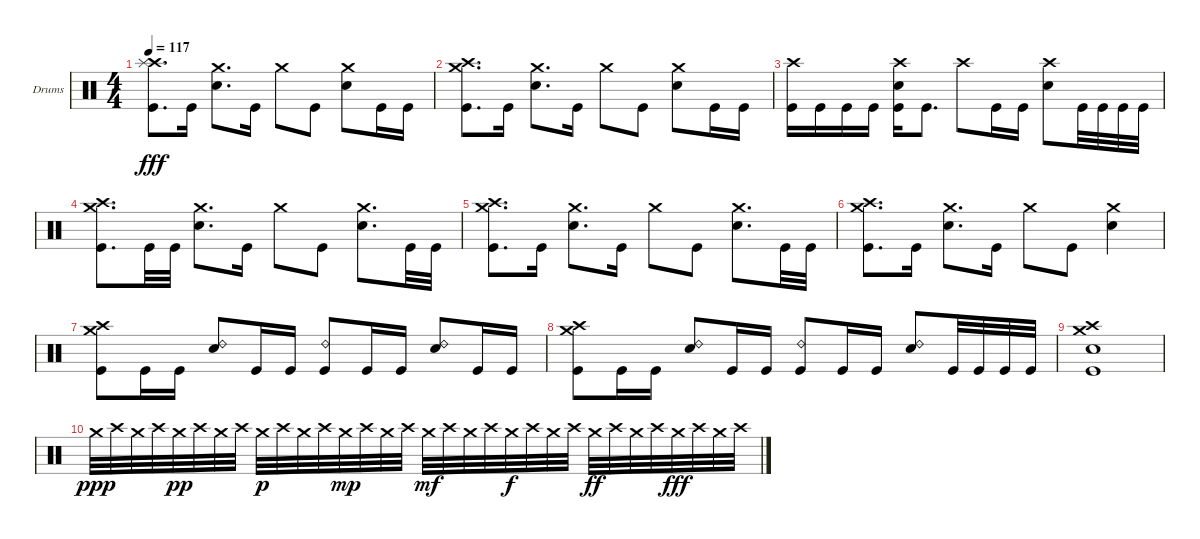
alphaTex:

\defaultSystemsLayout 4
\bracketExtendMode groupsimilarinstruments
\firstSystemTrackNameOrientation horizontal
\otherSystemsTrackNameOrientation horizontal
\track ("Drumkit" "Drums") {instrument percussion}
\staff {score}
\articulation defaults
\ts (4 4)
\tempo 117
\clef neutral
\ks c
("Crash high (hit)" "Splash (hit)" "Kick (hit)").8{d dy fff} "Kick (hit)".16 ("Crash medium (hit)" "Snare (hit) 2").8{d} "Kick (hit)".16 "Crash medium (hit)".8 "Kick (hit)".8 ("Crash medium (hit)" "Snare (hit) 2").8 "Kick (hit)".16 "Kick (hit)".16 |
("Crash high (hit)" "Crash medium (hit)" "Kick (hit)").8{d} "Kick (hit)".16 ("Crash medium (hit)" "Snare (hit) 2").8{d} "Kick (hit)".16 "Crash medium (hit)".8 "Kick (hit)".8 ("Crash medium (hit)" "Snare (hit) 2").8 "Kick (hit)".16 "Kick (hit)".16 |
("Crash high (hit)" "Kick (hit)").16 "Kick (hit)".16 "Kick (hit)".16 "Kick (hit)".16 ("Crash high (hit)" "Snare (hit) 2" "Kick (hit)").16 "Kick (hit)".8{d} "Crash high (hit)".8 "Kick (hit)".16 "Kick (hit)".16 ("Crash high (hit)" "Snare (hit) 2").8 "Kick (hit)".32 "Kick (hit)".32 "Kick (hit)".32 "Kick (hit)".32 |
("Crash high (hit)" "Crash medium (hit)" "Kick (hit)").8{d} "Kick (hit)".32 "Kick (hit)".32 ("Crash medium (hit)" "Snare (hit) 2").8{d} "Kick (hit)".16 "Crash medium (hit)".8 "Kick (hit)".8 ("Crash medium (hit)" "Snare (hit) 2").8{d} "Kick (hit)".32 "Kick (hit)".32 |
("Crash high (hit)" "Crash medium (hit)" "Kick (hit)").8{d} "Kick (hit)".16 ("Crash medium (hit)" "Snare (hit) 2").8{d} "Kick (hit)".16 "Crash medium (hit)".8 "Kick (hit)".8 ("Crash medium (hit)" "Snare (hit) 2").8{d} "Kick (hit)".32 "Kick (hit)".32 |
("Crash high (hit)" "Crash medium (hit)" "Kick (hit)").8{d} "Kick (hit)".16 ("Crash medium (hit)" "Snare (hit) 2").8{d} "Kick (hit)".16 "Crash medium (hit)".8 "Kick (hit)".8 ("Crash medium (hit)" "Snare (hit) 2").4 |
("Crash high (hit)" "Crash medium (hit)" "Kick (hit)").8 "Kick (hit)".16 "Kick (hit)".16 ("Ride (bell) 2" "Snare (hit) 2").8 "Kick (hit)".16 "Kick (hit)".16 ("Ride (bell) 2" "Kick (hit)").8 "Kick (hit)".16 "Kick (hit)".16 ("Ride (bell) 2" "Snare (hit) 2").8 "Kick (hit)".16 "Kick (hit)".16 |
("Crash high (hit)" "Crash medium (hit)" "Kick (hit)").8 "Kick (hit)".16 "Kick (hit)".16 ("Ride (bell) 2" "Snare (hit) 2").8 "Kick (hit)".16 "Kick (hit)".16 ("Ride (bell) 2" "Kick (hit)").8 "Kick (hit)".16 "Kick (hit)".16 ("Ride (bell) 2" "Snare (hit) 2").8 "Kick (hit)".32 "Kick (hit)".32 "Kick (hit)".32 "Kick (hit)".32 |
("Crash high (hit)" "Crash medium (hit)" "Snare (hit) 2" "Kick (hit)").1 |
"Crash medium (hit)".32{dy ppp} "Crash high (hit)".32 "Crash medium (hit)".32 "Crash high (hit)".32 "Crash medium (hit)".32{dy pp} "Crash high (hit)".32 "Crash medium (hit)".32 "Crash high (hit)".32 "Crash medium (hit)".32{dy p} "Crash high (hit)".32 "Crash medium (hit)".32 "Crash high (hit)".32 "Crash medium (hit)".32{dy mp} "Crash high (hit)".32 "Crash medium (hit)".32 "Crash high (hit)".32 "Crash medium (hit)".32{dy mf} "Crash high (hit)".32 "Crash medium (hit)".32 "Crash high (hit)".32 "Crash medium (hit)".32{dy f} "Crash high (hit)".32 "Crash medium (hit)".32 "Crash high (hit)".32 "Crash medium (hit)".32{dy ff} "Crash high (hit)".32 "Crash medium (hit)".32 "Crash high (hit)".32 "Crash medium (hit)".32{dy fff} "Crash high (hit)".32 "Crash medium (hit)".32 "Crash high (hit)".32
